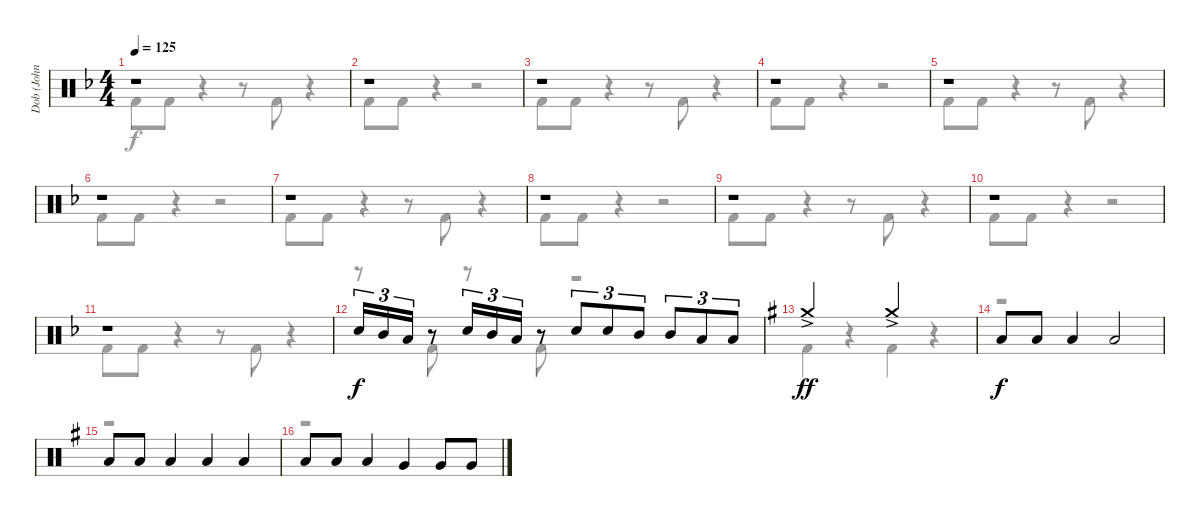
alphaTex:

\track ("Dob (John Macaluso)" "Dob (John ") {instrument percussion}
\staff {score}
\articulation defaults
\voice
\ts (4 4)
\tempo 125
\clef neutral
\ks f
r.1{dy f} |
r.1 |
r.1 |
r.1 |
r.1 |
r.1 |
r.1 |
r.1 |
r.1 |
r.1 |
r.1 |
"Electric Snare (hit)".16{tu (3 2)} "Mid Tom (hit)".16{tu (3 2)} "Low Tom (hit)".16{tu (3 2)} r.8 "Electric Snare (hit)".16{tu (3 2)} "Mid Tom (hit)".16{tu (3 2)} "Low Tom (hit)".16{tu (3 2)} r.8 "Electric Snare (hit)".8{tu (3 2)} "Electric Snare (hit)".8{tu (3 2)} "Mid Tom (hit)".8{tu (3 2)} "Mid Tom (hit)".8{tu (3 2)} "Low Tom (hit)".8{tu (3 2)} "Low Tom (hit)".8{tu (3 2)} |
\ks g "Crash medium (hit)"{ac}.2{dy ff} "Crash medium (hit)"{ac}.2
|
"Low Tom (hit)".8{dy f} "Low Tom (hit)".8 "Low Tom (hit)".4 "Low Tom (hit)".2 |
"Low Tom (hit)".8 "Low Tom (hit)".8 "Low Tom (hit)".4 "Low Tom (hit)".4 "Low Tom (hit)".4 |
"Low Tom (hit)".8 "Low Tom (hit)".8 "Low Tom (hit)".4 "Very Low Tom (hit)".4 "Very Low Tom (hit)".8 "Very Low Tom (hit)".8
\voice
\clef neutral
\ottava regular
\simile none
\ks f "Kick (hit) 2".8{dy f} "Kick (hit) 2".8
r.4 r.8 "Kick (hit) 2".8 r.4 |
"Kick (hit) 2".8 "Kick (hit) 2".8 r.4 r.2 |
"Kick (hit) 2".8 "Kick (hit) 2".8 r.4 r.8 "Kick (hit) 2".8 r.4 |
"Kick (hit) 2".8 "Kick (hit) 2".8 r.4 r.2 |
"Kick (hit) 2".8 "Kick (hit) 2".8 r.4 r.8 "Kick (hit) 2".8 r.4 |
"Kick (hit) 2".8 "Kick (hit) 2".8 r.4 r.2 |
"Kick (hit) 2".8 "Kick (hit) 2".8 r.4 r.8 "Kick (hit) 2".8 r.4 |
"Kick (hit) 2".8 "Kick (hit) 2".8 r.4 r.2 |
"Kick (hit) 2".8 "Kick (hit) 2".8 r.4 r.8 "Kick (hit) 2".8 r.4 |
"Kick (hit) 2".8 "Kick (hit) 2".8 r.4 r.2 |
"Kick (hit) 2".8 "Kick (hit) 2".8 r.4 r.8 "Kick (hit) 2".8 r.4 |
r.8 "Kick (hit) 2".8 r.8 "Kick (hit) 2".8 r.2 |
\ks g "Kick (hit) 2".4
r.4 "Kick (hit) 2".4 r.4 |
r.1 |
r.1 |
r.1
